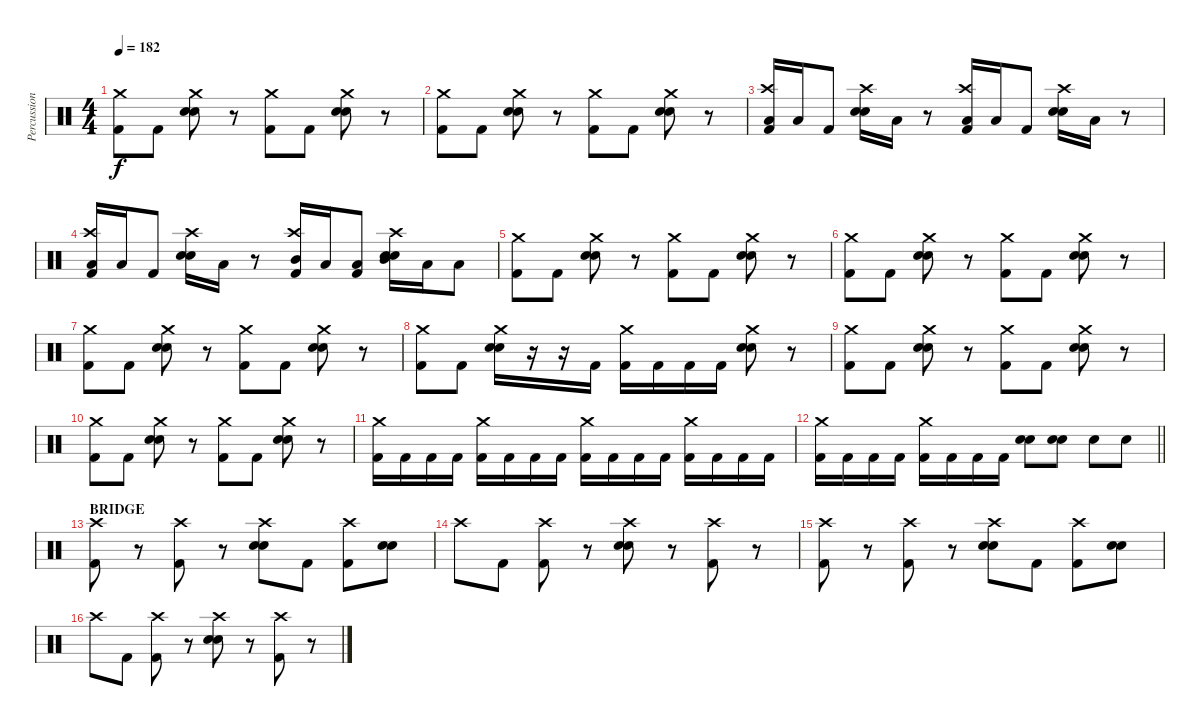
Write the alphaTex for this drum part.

\track ("Percussion" "Percussion") {instrument percussion}
\staff {score}
\articulation defaults
\ts (4 4)
\tempo 182
\clef neutral
\ks c
("Crash medium (hit)" "Kick (hit) 2").8{dy f} "Kick (hit) 2".8 ("Crash medium (hit)" "Snare (hit) 2" "Electric Snare (hit)").8 r.8 ("Crash medium (hit)" "Kick (hit) 2").8 "Kick (hit) 2".8 ("Crash medium (hit)" "Snare (hit) 2" "Electric Snare (hit)").8 r.8 |
("Crash medium (hit)" "Kick (hit) 2").8 "Kick (hit) 2".8 ("Crash medium (hit)" "Snare (hit) 2" "Electric Snare (hit)").8 r.8 ("Crash medium (hit)" "Kick (hit) 2").8 "Kick (hit) 2".8 ("Crash medium (hit)" "Snare (hit) 2" "Electric Snare (hit)").8 r.8 |
("Crash high (hit)" "Low Floor Tom (hit)" "Kick (hit) 2").16 "Low Floor Tom (hit)".16 "Kick (hit) 2".8 ("Crash high (hit)" "Snare (hit) 2" "Electric Snare (hit)").16 "Low Tom (hit)".16 r.8 ("Crash high (hit)" "Low Floor Tom (hit)" "Kick (hit) 2").16 "Low Floor Tom (hit)".16 "Kick (hit) 2".8 ("Crash high (hit)" "Snare (hit) 2" "Electric Snare (hit)").16 "Low Tom (hit)".16 r.8 |
("Crash high (hit)" "Low Floor Tom (hit)" "Kick (hit) 2").16 "Low Floor Tom (hit)".16 "Kick (hit) 2".8 ("Crash high (hit)" "Snare (hit) 2" "Electric Snare (hit)").16 "Low Tom (hit)".16 r.8 ("Crash high (hit)" "Mid Tom (hit)" "Kick (hit) 2").16 "Low Tom (hit)".16 ("Low Floor Tom (hit)" "Kick (hit) 2").8 ("Crash high (hit)" "Snare (hit) 2" "Electric Snare (hit)" "Mid Tom (hit)").16 "Low Tom (hit)".16 "Low Floor Tom (hit)".8 |
("Crash medium (hit)" "Kick (hit) 2").8 "Kick (hit) 2".8 ("Crash medium (hit)" "Snare (hit) 2" "Electric Snare (hit)").8 r.8 ("Crash medium (hit)" "Kick (hit) 2").8 "Kick (hit) 2".8 ("Crash medium (hit)" "Snare (hit) 2" "Electric Snare (hit)").8 r.8 |
("Crash medium (hit)" "Kick (hit) 2").8 "Kick (hit) 2".8 ("Crash medium (hit)" "Snare (hit) 2" "Electric Snare (hit)").8 r.8 ("Crash medium (hit)" "Kick (hit) 2").8 "Kick (hit) 2".8 ("Crash medium (hit)" "Snare (hit) 2" "Electric Snare (hit)").8 r.8 |
("Crash medium (hit)" "Kick (hit) 2").8 "Kick (hit) 2".8 ("Crash medium (hit)" "Snare (hit) 2" "Electric Snare (hit)").8 r.8 ("Crash medium (hit)" "Kick (hit) 2").8 "Kick (hit) 2".8 ("Crash medium (hit)" "Snare (hit) 2" "Electric Snare (hit)").8 r.8 |
("Crash medium (hit)" "Kick (hit) 2").8 "Kick (hit) 2".8 ("Crash medium (hit)" "Snare (hit) 2" "Electric Snare (hit)").16 r.16 r.16 "Kick (hit) 2".16 ("Crash medium (hit)" "Kick (hit) 2").16 "Kick (hit) 2".16 "Kick (hit) 2".16 "Kick (hit) 2".16 ("Crash medium (hit)" "Snare (hit) 2" "Electric Snare (hit)").8 r.8 |
("Crash medium (hit)" "Kick (hit) 2").8 "Kick (hit) 2".8 ("Crash medium (hit)" "Snare (hit) 2" "Electric Snare (hit)").8 r.8 ("Crash medium (hit)" "Kick (hit) 2").8 "Kick (hit) 2".8 ("Crash medium (hit)" "Snare (hit) 2" "Electric Snare (hit)").8 r.8 |
("Crash medium (hit)" "Kick (hit) 2").8 "Kick (hit) 2".8 ("Crash medium (hit)" "Snare (hit) 2" "Electric Snare (hit)").8 r.8 ("Crash medium (hit)" "Kick (hit) 2").8 "Kick (hit) 2".8 ("Crash medium (hit)" "Snare (hit) 2" "Electric Snare (hit)").8 r.8 |
("Crash medium (hit)" "Kick (hit) 2").16 "Kick (hit) 2".16 "Kick (hit) 2".16 "Kick (hit) 2".16 ("Crash medium (hit)" "Kick (hit) 2").16 "Kick (hit) 2".16 "Kick (hit) 2".16 "Kick (hit) 2".16 ("Crash medium (hit)" "Kick (hit) 2").16 "Kick (hit) 2".16 "Kick (hit) 2".16 "Kick (hit) 2".16 ("Crash medium (hit)" "Kick (hit) 2").16 "Kick (hit) 2".16 "Kick (hit) 2".16 "Kick (hit) 2".16 |
\barLineRight lightlight
("Crash medium (hit)" "Kick (hit) 2").16 "Kick (hit) 2".16 "Kick (hit) 2".16 "Kick (hit) 2".16 ("Crash medium (hit)" "Kick (hit) 2").16 "Kick (hit) 2".16 "Kick (hit) 2".16 "Kick (hit) 2".16 ("Snare (hit) 2" "Electric Snare (hit)").8 ("Snare (hit) 2" "Electric Snare (hit)").8 "Electric Snare (hit)".8 "Electric Snare (hit)".8 |
\section ("" "BRIDGE")
("Crash high (hit)" "Kick (hit) 2").8 r.8 ("Crash high (hit)" "Kick (hit) 2").8 r.8 ("Crash high (hit)" "Snare (hit) 2" "Electric Snare (hit)").8 "Kick (hit) 2".8 ("Crash high (hit)" "Kick (hit) 2").8 ("Snare (hit) 2" "Electric Snare (hit)").8 |
"Crash high (hit)".8 "Kick (hit) 2".8 ("Crash high (hit)" "Kick (hit) 2").8 r.8 ("Crash high (hit)" "Snare (hit) 2" "Electric Snare (hit)").8 r.8 ("Crash high (hit)" "Kick (hit) 2").8 r.8 |
("Crash high (hit)" "Kick (hit) 2").8 r.8 ("Crash high (hit)" "Kick (hit) 2").8 r.8 ("Crash high (hit)" "Snare (hit) 2" "Electric Snare (hit)").8 "Kick (hit) 2".8 ("Crash high (hit)" "Kick (hit) 2").8 ("Snare (hit) 2" "Electric Snare (hit)").8 |
"Crash high (hit)".8 "Kick (hit) 2".8 ("Crash high (hit)" "Kick (hit) 2").8 r.8 ("Crash high (hit)" "Snare (hit) 2" "Electric Snare (hit)").8 r.8 ("Crash high (hit)" "Kick (hit) 2").8 r.8
